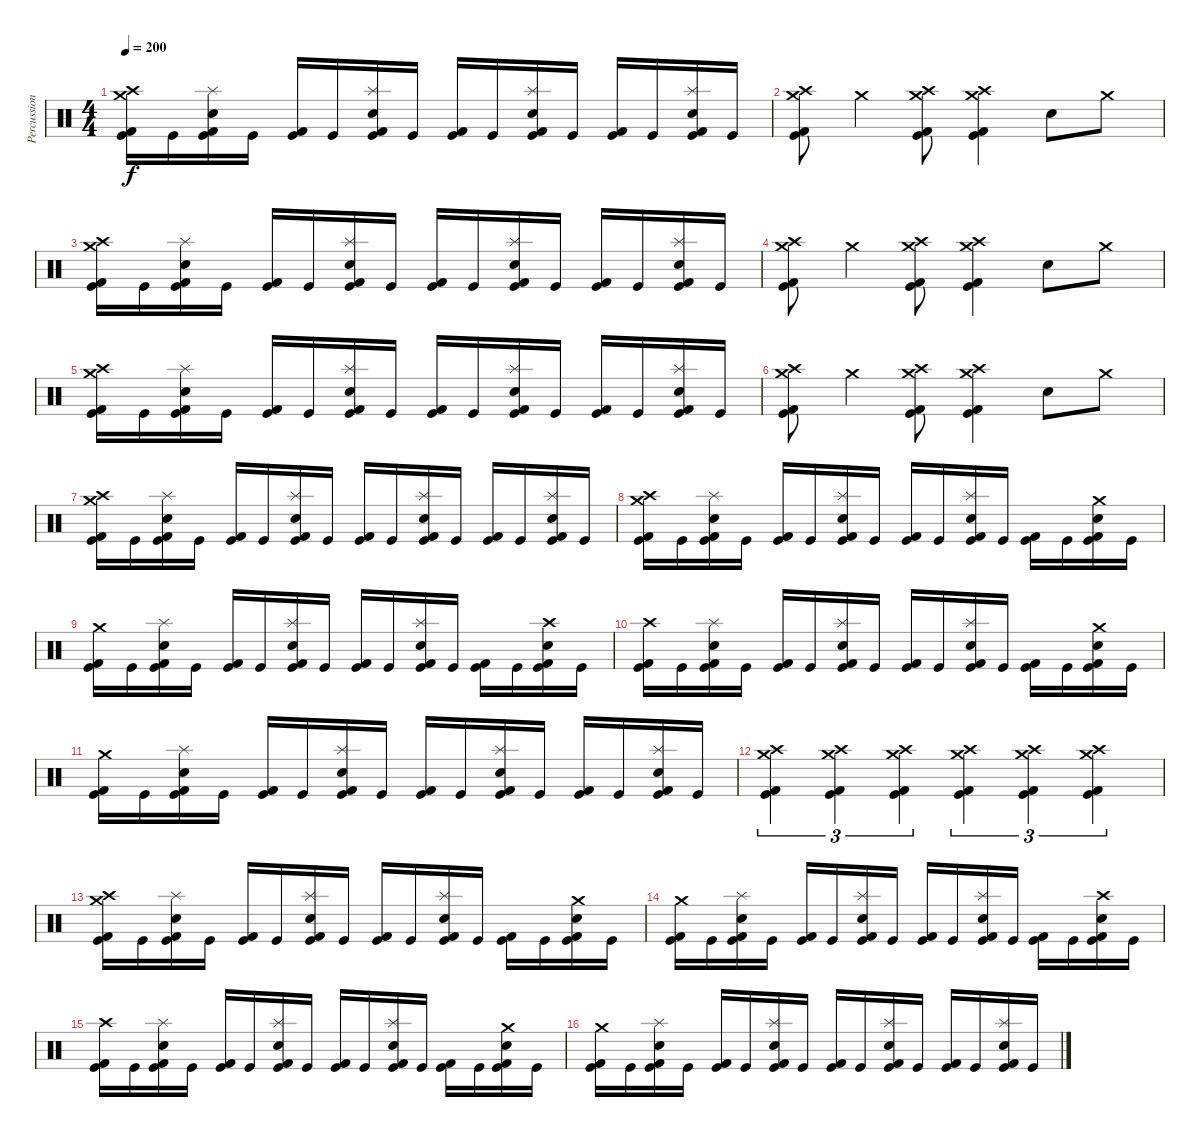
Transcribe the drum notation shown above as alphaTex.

\track ("Percussion" "Percussion") {instrument percussion}
\staff {score}
\articulation defaults
\ts (4 4)
\tempo 200
\clef neutral
\ks c
("Crash high (hit)" "Crash medium (hit)" "Kick (hit) 2" "Kick (hit)").16{dy f} "Kick (hit)".16 ("Splash (hit)" "Snare (hit) 2" "Kick (hit) 2" "Kick (hit)").16 "Kick (hit)".16 ("Kick (hit) 2" "Kick (hit)").16 "Kick (hit)".16 ("Splash (hit)" "Snare (hit) 2" "Kick (hit) 2" "Kick (hit)").16 "Kick (hit)".16 ("Kick (hit) 2" "Kick (hit)").16 "Kick (hit)".16 ("Splash (hit)" "Snare (hit) 2" "Kick (hit) 2" "Kick (hit)").16 "Kick (hit)".16 ("Kick (hit) 2" "Kick (hit)").16 "Kick (hit)".16 ("Splash (hit)" "Snare (hit) 2" "Kick (hit) 2" "Kick (hit)").16 "Kick (hit)".16 |
("Crash high (hit)" "Crash medium (hit)" "Kick (hit) 2" "Kick (hit)").8 "Crash medium (hit)".4 ("Crash high (hit)" "Crash medium (hit)" "Kick (hit) 2" "Kick (hit)").8 ("Crash high (hit)" "Crash medium (hit)" "Kick (hit) 2" "Kick (hit)").4 "Snare (hit) 2".8 "Crash medium (hit)".8 |
("Crash high (hit)" "Crash medium (hit)" "Kick (hit) 2" "Kick (hit)").16 "Kick (hit)".16 ("Splash (hit)" "Snare (hit) 2" "Kick (hit) 2" "Kick (hit)").16 "Kick (hit)".16 ("Kick (hit) 2" "Kick (hit)").16 "Kick (hit)".16 ("Splash (hit)" "Snare (hit) 2" "Kick (hit) 2" "Kick (hit)").16 "Kick (hit)".16 ("Kick (hit) 2" "Kick (hit)").16 "Kick (hit)".16 ("Splash (hit)" "Snare (hit) 2" "Kick (hit) 2" "Kick (hit)").16 "Kick (hit)".16 ("Kick (hit) 2" "Kick (hit)").16 "Kick (hit)".16 ("Splash (hit)" "Snare (hit) 2" "Kick (hit) 2" "Kick (hit)").16 "Kick (hit)".16 |
("Crash high (hit)" "Crash medium (hit)" "Kick (hit) 2" "Kick (hit)").8 "Crash medium (hit)".4 ("Crash high (hit)" "Crash medium (hit)" "Kick (hit) 2" "Kick (hit)").8 ("Crash high (hit)" "Crash medium (hit)" "Kick (hit) 2" "Kick (hit)").4 "Snare (hit) 2".8 "Crash medium (hit)".8 |
("Crash high (hit)" "Crash medium (hit)" "Kick (hit) 2" "Kick (hit)").16 "Kick (hit)".16 ("Splash (hit)" "Snare (hit) 2" "Kick (hit) 2" "Kick (hit)").16 "Kick (hit)".16 ("Kick (hit) 2" "Kick (hit)").16 "Kick (hit)".16 ("Splash (hit)" "Snare (hit) 2" "Kick (hit) 2" "Kick (hit)").16 "Kick (hit)".16 ("Kick (hit) 2" "Kick (hit)").16 "Kick (hit)".16 ("Splash (hit)" "Snare (hit) 2" "Kick (hit) 2" "Kick (hit)").16 "Kick (hit)".16 ("Kick (hit) 2" "Kick (hit)").16 "Kick (hit)".16 ("Splash (hit)" "Snare (hit) 2" "Kick (hit) 2" "Kick (hit)").16 "Kick (hit)".16 |
("Crash high (hit)" "Crash medium (hit)" "Kick (hit) 2" "Kick (hit)").8 "Crash medium (hit)".4 ("Crash high (hit)" "Crash medium (hit)" "Kick (hit) 2" "Kick (hit)").8 ("Crash high (hit)" "Crash medium (hit)" "Kick (hit) 2" "Kick (hit)").4 "Snare (hit) 2".8 "Crash medium (hit)".8 |
("Crash high (hit)" "Crash medium (hit)" "Kick (hit) 2" "Kick (hit)").16 "Kick (hit)".16 ("Splash (hit)" "Snare (hit) 2" "Kick (hit) 2" "Kick (hit)").16 "Kick (hit)".16 ("Kick (hit) 2" "Kick (hit)").16 "Kick (hit)".16 ("Splash (hit)" "Snare (hit) 2" "Kick (hit) 2" "Kick (hit)").16 "Kick (hit)".16 ("Kick (hit) 2" "Kick (hit)").16 "Kick (hit)".16 ("Splash (hit)" "Snare (hit) 2" "Kick (hit) 2" "Kick (hit)").16 "Kick (hit)".16 ("Kick (hit) 2" "Kick (hit)").16 "Kick (hit)".16 ("Splash (hit)" "Snare (hit) 2" "Kick (hit) 2" "Kick (hit)").16 "Kick (hit)".16 |
("Crash high (hit)" "Crash medium (hit)" "Kick (hit) 2" "Kick (hit)").16 "Kick (hit)".16 ("Splash (hit)" "Snare (hit) 2" "Kick (hit) 2" "Kick (hit)").16 "Kick (hit)".16 ("Kick (hit) 2" "Kick (hit)").16 "Kick (hit)".16 ("Splash (hit)" "Snare (hit) 2" "Kick (hit) 2" "Kick (hit)").16 "Kick (hit)".16 ("Kick (hit) 2" "Kick (hit)").16 "Kick (hit)".16 ("Splash (hit)" "Snare (hit) 2" "Kick (hit) 2" "Kick (hit)").16 "Kick (hit)".16 ("Kick (hit) 2" "Kick (hit)").16 "Kick (hit)".16 ("Crash medium (hit)" "Snare (hit) 2" "Kick (hit) 2" "Kick (hit)").16 "Kick (hit)".16 |
("Crash medium (hit)" "Kick (hit) 2" "Kick (hit)").16 "Kick (hit)".16 ("Splash (hit)" "Snare (hit) 2" "Kick (hit) 2" "Kick (hit)").16 "Kick (hit)".16 ("Kick (hit) 2" "Kick (hit)").16 "Kick (hit)".16 ("Splash (hit)" "Snare (hit) 2" "Kick (hit) 2" "Kick (hit)").16 "Kick (hit)".16 ("Kick (hit) 2" "Kick (hit)").16 "Kick (hit)".16 ("Splash (hit)" "Snare (hit) 2" "Kick (hit) 2" "Kick (hit)").16 "Kick (hit)".16 ("Kick (hit) 2" "Kick (hit)").16 "Kick (hit)".16 ("Crash high (hit)" "Snare (hit) 2" "Kick (hit) 2" "Kick (hit)").16 "Kick (hit)".16 |
("Crash high (hit)" "Kick (hit) 2" "Kick (hit)").16 "Kick (hit)".16 ("Splash (hit)" "Snare (hit) 2" "Kick (hit) 2" "Kick (hit)").16 "Kick (hit)".16 ("Kick (hit) 2" "Kick (hit)").16 "Kick (hit)".16 ("Splash (hit)" "Snare (hit) 2" "Kick (hit) 2" "Kick (hit)").16 "Kick (hit)".16 ("Kick (hit) 2" "Kick (hit)").16 "Kick (hit)".16 ("Splash (hit)" "Snare (hit) 2" "Kick (hit) 2" "Kick (hit)").16 "Kick (hit)".16 ("Kick (hit) 2" "Kick (hit)").16 "Kick (hit)".16 ("Crash medium (hit)" "Snare (hit) 2" "Kick (hit) 2" "Kick (hit)").16 "Kick (hit)".16 |
("Crash medium (hit)" "Kick (hit) 2" "Kick (hit)").16 "Kick (hit)".16 ("Splash (hit)" "Snare (hit) 2" "Kick (hit) 2" "Kick (hit)").16 "Kick (hit)".16 ("Kick (hit) 2" "Kick (hit)").16 "Kick (hit)".16 ("Splash (hit)" "Snare (hit) 2" "Kick (hit) 2" "Kick (hit)").16 "Kick (hit)".16 ("Kick (hit) 2" "Kick (hit)").16 "Kick (hit)".16 ("Splash (hit)" "Snare (hit) 2" "Kick (hit) 2" "Kick (hit)").16 "Kick (hit)".16 ("Kick (hit) 2" "Kick (hit)").16 "Kick (hit)".16 ("Splash (hit)" "Snare (hit) 2" "Kick (hit) 2" "Kick (hit)").16 "Kick (hit)".16 |
("Crash high (hit)" "Crash medium (hit)" "Kick (hit) 2" "Kick (hit)").4{tu (3 2)} ("Crash high (hit)" "Crash medium (hit)" "Kick (hit) 2" "Kick (hit)").4{tu (3 2)} ("Crash high (hit)" "Crash medium (hit)" "Kick (hit) 2" "Kick (hit)").4{tu (3 2)} ("Crash high (hit)" "Crash medium (hit)" "Kick (hit) 2" "Kick (hit)").4{tu (3 2)} ("Crash high (hit)" "Crash medium (hit)" "Kick (hit) 2" "Kick (hit)").4{tu (3 2)} ("Crash high (hit)" "Crash medium (hit)" "Kick (hit) 2" "Kick (hit)").4{tu (3 2)} |
("Crash high (hit)" "Crash medium (hit)" "Kick (hit) 2" "Kick (hit)").16 "Kick (hit)".16 ("Splash (hit)" "Snare (hit) 2" "Kick (hit) 2" "Kick (hit)").16 "Kick (hit)".16 ("Kick (hit) 2" "Kick (hit)").16 "Kick (hit)".16 ("Splash (hit)" "Snare (hit) 2" "Kick (hit) 2" "Kick (hit)").16 "Kick (hit)".16 ("Kick (hit) 2" "Kick (hit)").16 "Kick (hit)".16 ("Splash (hit)" "Snare (hit) 2" "Kick (hit) 2" "Kick (hit)").16 "Kick (hit)".16 ("Kick (hit) 2" "Kick (hit)").16 "Kick (hit)".16 ("Crash medium (hit)" "Snare (hit) 2" "Kick (hit) 2" "Kick (hit)").16 "Kick (hit)".16 |
("Crash medium (hit)" "Kick (hit) 2" "Kick (hit)").16 "Kick (hit)".16 ("Splash (hit)" "Snare (hit) 2" "Kick (hit) 2" "Kick (hit)").16 "Kick (hit)".16 ("Kick (hit) 2" "Kick (hit)").16 "Kick (hit)".16 ("Splash (hit)" "Snare (hit) 2" "Kick (hit) 2" "Kick (hit)").16 "Kick (hit)".16 ("Kick (hit) 2" "Kick (hit)").16 "Kick (hit)".16 ("Splash (hit)" "Snare (hit) 2" "Kick (hit) 2" "Kick (hit)").16 "Kick (hit)".16 ("Kick (hit) 2" "Kick (hit)").16 "Kick (hit)".16 ("Crash high (hit)" "Snare (hit) 2" "Kick (hit) 2" "Kick (hit)").16 "Kick (hit)".16 |
("Crash high (hit)" "Kick (hit) 2" "Kick (hit)").16 "Kick (hit)".16 ("Splash (hit)" "Snare (hit) 2" "Kick (hit) 2" "Kick (hit)").16 "Kick (hit)".16 ("Kick (hit) 2" "Kick (hit)").16 "Kick (hit)".16 ("Splash (hit)" "Snare (hit) 2" "Kick (hit) 2" "Kick (hit)").16 "Kick (hit)".16 ("Kick (hit) 2" "Kick (hit)").16 "Kick (hit)".16 ("Splash (hit)" "Snare (hit) 2" "Kick (hit) 2" "Kick (hit)").16 "Kick (hit)".16 ("Kick (hit) 2" "Kick (hit)").16 "Kick (hit)".16 ("Crash medium (hit)" "Snare (hit) 2" "Kick (hit) 2" "Kick (hit)").16 "Kick (hit)".16 |
("Crash medium (hit)" "Kick (hit) 2" "Kick (hit)").16 "Kick (hit)".16 ("Splash (hit)" "Snare (hit) 2" "Kick (hit) 2" "Kick (hit)").16 "Kick (hit)".16 ("Kick (hit) 2" "Kick (hit)").16 "Kick (hit)".16 ("Splash (hit)" "Snare (hit) 2" "Kick (hit) 2" "Kick (hit)").16 "Kick (hit)".16 ("Kick (hit) 2" "Kick (hit)").16 "Kick (hit)".16 ("Splash (hit)" "Snare (hit) 2" "Kick (hit) 2" "Kick (hit)").16 "Kick (hit)".16 ("Kick (hit) 2" "Kick (hit)").16 "Kick (hit)".16 ("Splash (hit)" "Snare (hit) 2" "Kick (hit) 2" "Kick (hit)").16 "Kick (hit)".16
